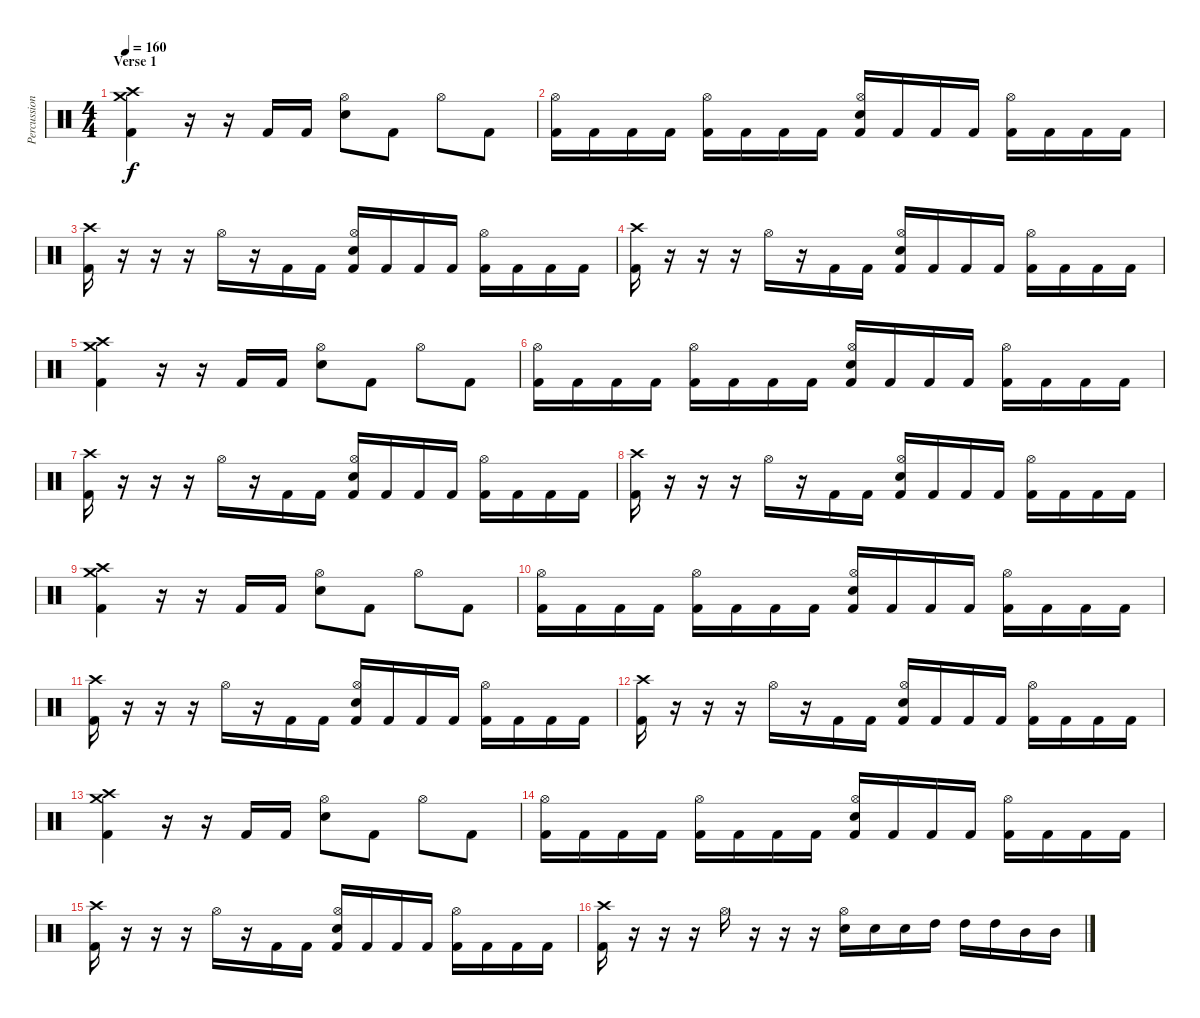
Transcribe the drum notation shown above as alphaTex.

\track ("Percussions" "Percussion") {instrument percussion}
\staff {score}
\articulation defaults
\ts (4 4)
\section ("" "Verse 1")
\tempo 160
\clef neutral
\ks c
("Crash medium (hit)" "Crash high (hit)" "Kick (hit) 2").4{dy f} r.16 r.16 "Kick (hit) 2".16 "Kick (hit) 2".16 ("Hi-Hat (open)" "Electric Snare (hit)").8 "Kick (hit) 2".8 "Hi-Hat (open)".8 "Kick (hit) 2".8 |
("Hi-Hat (open)" "Kick (hit) 2").16 "Kick (hit) 2".16 "Kick (hit) 2".16 "Kick (hit) 2".16 ("Hi-Hat (open)" "Kick (hit) 2").16 "Kick (hit) 2".16 "Kick (hit) 2".16 "Kick (hit) 2".16 ("Hi-Hat (open)" "Electric Snare (hit)" "Kick (hit) 2").16 "Kick (hit) 2".16 "Kick (hit) 2".16 "Kick (hit) 2".16 ("Hi-Hat (open)" "Kick (hit) 2").16 "Kick (hit) 2".16 "Kick (hit) 2".16 "Kick (hit) 2".16 |
("Crash high (hit)" "Kick (hit) 2").16 r.16 r.16 r.16 "Hi-Hat (open)".16 r.16 "Kick (hit) 2".16 "Kick (hit) 2".16 ("Hi-Hat (open)" "Electric Snare (hit)" "Kick (hit) 2").16 "Kick (hit) 2".16 "Kick (hit) 2".16 "Kick (hit) 2".16 ("Hi-Hat (open)" "Kick (hit) 2").16 "Kick (hit) 2".16 "Kick (hit) 2".16 "Kick (hit) 2".16 |
("Crash high (hit)" "Kick (hit) 2").16 r.16 r.16 r.16 "Hi-Hat (open)".16 r.16 "Kick (hit) 2".16 "Kick (hit) 2".16 ("Hi-Hat (open)" "Electric Snare (hit)" "Kick (hit) 2").16 "Kick (hit) 2".16 "Kick (hit) 2".16 "Kick (hit) 2".16 ("Hi-Hat (open)" "Kick (hit) 2").16 "Kick (hit) 2".16 "Kick (hit) 2".16 "Kick (hit) 2".16 |
("Crash medium (hit)" "Crash high (hit)" "Kick (hit) 2").4 r.16 r.16 "Kick (hit) 2".16 "Kick (hit) 2".16 ("Hi-Hat (open)" "Electric Snare (hit)").8 "Kick (hit) 2".8 "Hi-Hat (open)".8 "Kick (hit) 2".8 |
("Hi-Hat (open)" "Kick (hit) 2").16 "Kick (hit) 2".16 "Kick (hit) 2".16 "Kick (hit) 2".16 ("Hi-Hat (open)" "Kick (hit) 2").16 "Kick (hit) 2".16 "Kick (hit) 2".16 "Kick (hit) 2".16 ("Hi-Hat (open)" "Electric Snare (hit)" "Kick (hit) 2").16 "Kick (hit) 2".16 "Kick (hit) 2".16 "Kick (hit) 2".16 ("Hi-Hat (open)" "Kick (hit) 2").16 "Kick (hit) 2".16 "Kick (hit) 2".16 "Kick (hit) 2".16 |
("Crash high (hit)" "Kick (hit) 2").16 r.16 r.16 r.16 "Hi-Hat (open)".16 r.16 "Kick (hit) 2".16 "Kick (hit) 2".16 ("Hi-Hat (open)" "Electric Snare (hit)" "Kick (hit) 2").16 "Kick (hit) 2".16 "Kick (hit) 2".16 "Kick (hit) 2".16 ("Hi-Hat (open)" "Kick (hit) 2").16 "Kick (hit) 2".16 "Kick (hit) 2".16 "Kick (hit) 2".16 |
("Crash high (hit)" "Kick (hit) 2").16 r.16 r.16 r.16 "Hi-Hat (open)".16 r.16 "Kick (hit) 2".16 "Kick (hit) 2".16 ("Hi-Hat (open)" "Electric Snare (hit)" "Kick (hit) 2").16 "Kick (hit) 2".16 "Kick (hit) 2".16 "Kick (hit) 2".16 ("Hi-Hat (open)" "Kick (hit) 2").16 "Kick (hit) 2".16 "Kick (hit) 2".16 "Kick (hit) 2".16 |
("Crash medium (hit)" "Crash high (hit)" "Kick (hit) 2").4 r.16 r.16 "Kick (hit) 2".16 "Kick (hit) 2".16 ("Hi-Hat (open)" "Electric Snare (hit)").8 "Kick (hit) 2".8 "Hi-Hat (open)".8 "Kick (hit) 2".8 |
("Hi-Hat (open)" "Kick (hit) 2").16 "Kick (hit) 2".16 "Kick (hit) 2".16 "Kick (hit) 2".16 ("Hi-Hat (open)" "Kick (hit) 2").16 "Kick (hit) 2".16 "Kick (hit) 2".16 "Kick (hit) 2".16 ("Hi-Hat (open)" "Electric Snare (hit)" "Kick (hit) 2").16 "Kick (hit) 2".16 "Kick (hit) 2".16 "Kick (hit) 2".16 ("Hi-Hat (open)" "Kick (hit) 2").16 "Kick (hit) 2".16 "Kick (hit) 2".16 "Kick (hit) 2".16 |
("Crash high (hit)" "Kick (hit) 2").16 r.16 r.16 r.16 "Hi-Hat (open)".16 r.16 "Kick (hit) 2".16 "Kick (hit) 2".16 ("Hi-Hat (open)" "Electric Snare (hit)" "Kick (hit) 2").16 "Kick (hit) 2".16 "Kick (hit) 2".16 "Kick (hit) 2".16 ("Hi-Hat (open)" "Kick (hit) 2").16 "Kick (hit) 2".16 "Kick (hit) 2".16 "Kick (hit) 2".16 |
("Crash high (hit)" "Kick (hit) 2").16 r.16 r.16 r.16 "Hi-Hat (open)".16 r.16 "Kick (hit) 2".16 "Kick (hit) 2".16 ("Hi-Hat (open)" "Electric Snare (hit)" "Kick (hit) 2").16 "Kick (hit) 2".16 "Kick (hit) 2".16 "Kick (hit) 2".16 ("Hi-Hat (open)" "Kick (hit) 2").16 "Kick (hit) 2".16 "Kick (hit) 2".16 "Kick (hit) 2".16 |
("Crash medium (hit)" "Crash high (hit)" "Kick (hit) 2").4 r.16 r.16 "Kick (hit) 2".16 "Kick (hit) 2".16 ("Hi-Hat (open)" "Electric Snare (hit)").8 "Kick (hit) 2".8 "Hi-Hat (open)".8 "Kick (hit) 2".8 |
("Hi-Hat (open)" "Kick (hit) 2").16 "Kick (hit) 2".16 "Kick (hit) 2".16 "Kick (hit) 2".16 ("Hi-Hat (open)" "Kick (hit) 2").16 "Kick (hit) 2".16 "Kick (hit) 2".16 "Kick (hit) 2".16 ("Hi-Hat (open)" "Electric Snare (hit)" "Kick (hit) 2").16 "Kick (hit) 2".16 "Kick (hit) 2".16 "Kick (hit) 2".16 ("Hi-Hat (open)" "Kick (hit) 2").16 "Kick (hit) 2".16 "Kick (hit) 2".16 "Kick (hit) 2".16 |
("Crash high (hit)" "Kick (hit) 2").16 r.16 r.16 r.16 "Hi-Hat (open)".16 r.16 "Kick (hit) 2".16 "Kick (hit) 2".16 ("Hi-Hat (open)" "Electric Snare (hit)" "Kick (hit) 2").16 "Kick (hit) 2".16 "Kick (hit) 2".16 "Kick (hit) 2".16 ("Hi-Hat (open)" "Kick (hit) 2").16 "Kick (hit) 2".16 "Kick (hit) 2".16 "Kick (hit) 2".16 |
("Crash high (hit)" "Kick (hit) 2").16 r.16 r.16 r.16 "Hi-Hat (open)".16 r.16 r.16 r.16 ("Hi-Hat (open)" "Electric Snare (hit)").16 "Electric Snare (hit)".16 "Electric Snare (hit)".16 "High Tom (hit)".16 "High Tom (hit)".16 "High Tom (hit)".16 "Mid Tom (hit)".16 "Mid Tom (hit)".16
